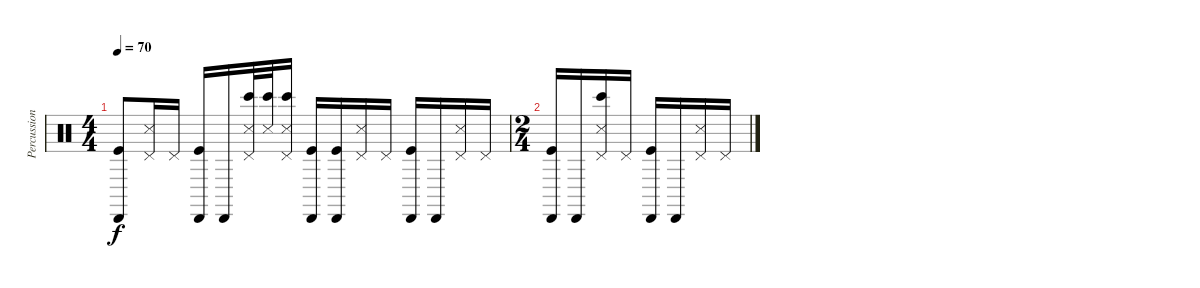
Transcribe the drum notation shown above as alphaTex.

\track ("Percussions" "Percussion") {instrument percussion}
\staff {score}
\articulation defaults
\ts (4 4)
\tempo 70
\clef neutral
\ks c
("Cabasa (hit)" "Kick (hit)").8{dy f} ("Pedal Hi-Hat (hit)" "Snare (side stick) 3").16 "Pedal Hi-Hat (hit)".16 ("Cabasa (hit)" "Kick (hit)").16 "Cabasa (hit)".16 ("Pedal Hi-Hat (hit)" "Snare (side stick) 3" "Bongo High (hit)").32 ("Snare (side stick) 3" "Bongo High (hit)").32 ("Pedal Hi-Hat (hit)" "Snare (side stick) 3" "Bongo High (hit)").16 ("Cabasa (hit)" "Kick (hit)").16 ("Cabasa (hit)" "Kick (hit)").16 ("Pedal Hi-Hat (hit)" "Snare (side stick) 3").16 "Pedal Hi-Hat (hit)".16 ("Cabasa (hit)" "Kick (hit)").16 "Cabasa (hit)".16 ("Pedal Hi-Hat (hit)" "Snare (side stick) 3").16 "Pedal Hi-Hat (hit)".16 |
\ts (2 4)
("Cabasa (hit)" "Kick (hit)").16 "Cabasa (hit)".16 ("Pedal Hi-Hat (hit)" "Snare (side stick) 3" "Bongo High (hit)").16 "Pedal Hi-Hat (hit)".16 ("Cabasa (hit)" "Kick (hit)").16 "Cabasa (hit)".16 ("Pedal Hi-Hat (hit)" "Snare (side stick) 3").16 "Pedal Hi-Hat (hit)".16
